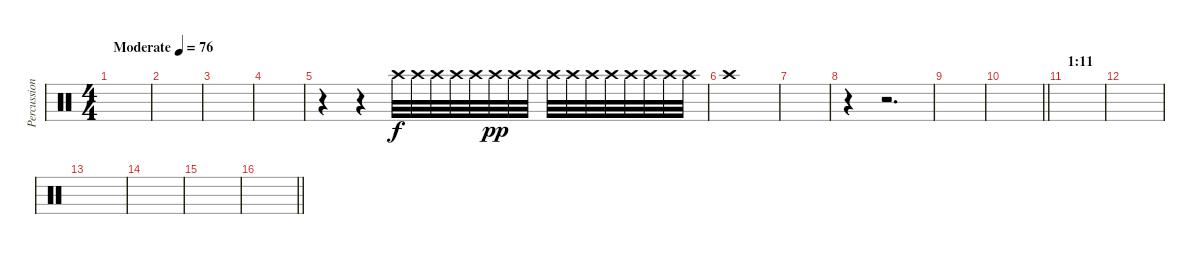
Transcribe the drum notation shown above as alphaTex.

\track ("Percussions" "Percussion") {instrument percussion}
\staff {score}
\articulation defaults
\ts (4 4)
\tempo (76 "Moderate")
\clef neutral
\ks c
|
|
|
|
r.4 r.4 "Crash high (hit)".32 "Crash high (hit)".32 "Crash high (hit)".32 "Crash high (hit)".32 "Crash high (hit)".32 "Crash high (hit)".32{dy pp} "Crash high (hit)".32 "Crash high (hit)".32 "Crash high (hit)".32 "Crash high (hit)".32 "Crash high (hit)".32 "Crash high (hit)".32 "Crash high (hit)".32 "Crash high (hit)".32 "Crash high (hit)".32 "Crash high (hit)".32 |
"Crash high (hit)".1 |
|
r.4 r.2{d} |
|
\barLineRight lightlight
|
\section ("" "1:11")
|
|
|
|
|
\barLineRight lightlight
